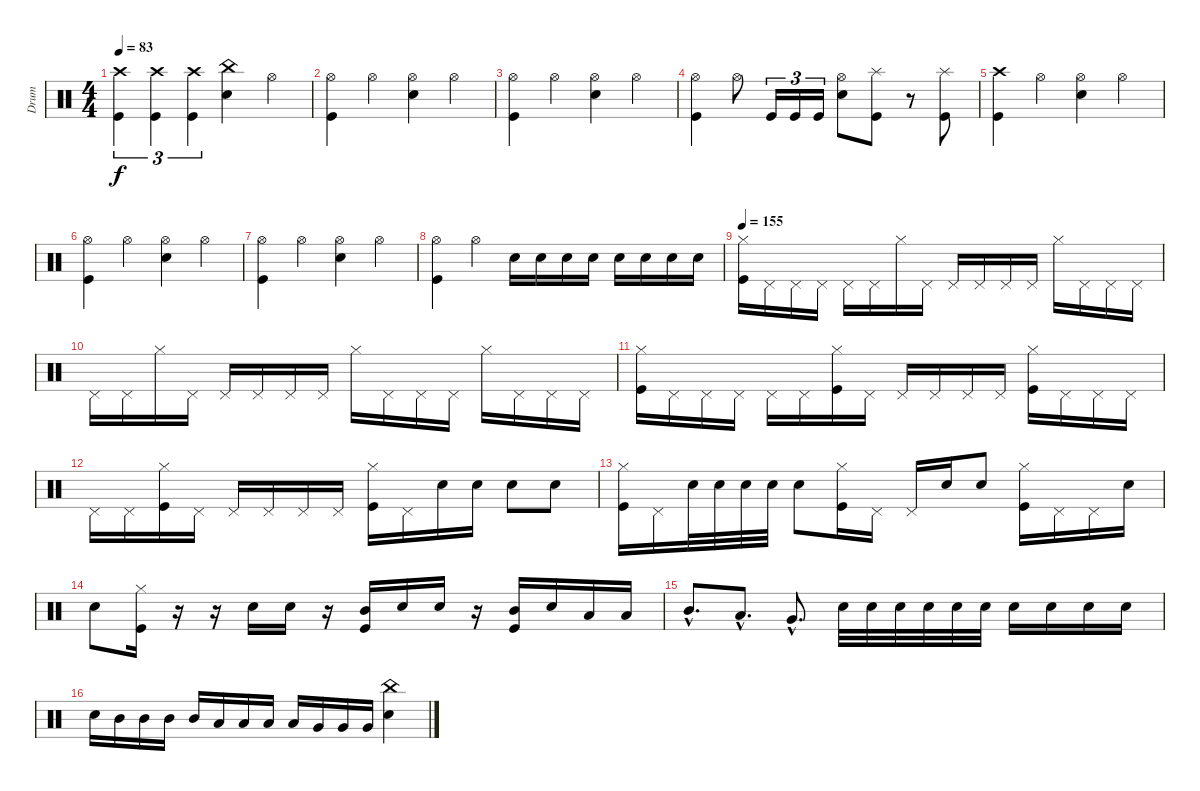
\track ("Drum" "Drum") {instrument percussion}
\staff {score}
\articulation defaults
\ts (4 4)
\tempo 83
\clef neutral
\ks c
("Kick (hit)" "Crash high (hit)").4{tu (3 2) dy f} ("Kick (hit)" "Crash high (hit)").4{tu (3 2)} ("Kick (hit)" "Crash high (hit)").4{tu (3 2)} ("Electric Snare (hit)" "China (hit)").4 "Hi-Hat (open)".4 |
("Kick (hit)" "Hi-Hat (open)").4 "Hi-Hat (open)".4 ("Electric Snare (hit)" "Hi-Hat (open)").4 "Hi-Hat (open)".4 |
("Kick (hit)" "Hi-Hat (open)").4 "Hi-Hat (open)".4 ("Electric Snare (hit)" "Hi-Hat (open)").4 "Hi-Hat (open)".4 |
("Kick (hit)" "Hi-Hat (open)").4 "Hi-Hat (open)".8 "Kick (hit)".16{tu (3 2)} "Kick (hit)".16{tu (3 2)} "Kick (hit)".16{tu (3 2)} ("Electric Snare (hit)" "Hi-Hat (open)").8 ("Kick (hit)" "Splash (hit)").8 r.8 ("Kick (hit)" "Splash (hit)").8 |
("Kick (hit)" "Crash high (hit)").4 "Hi-Hat (open)".4 ("Electric Snare (hit)" "Hi-Hat (open)").4 "Hi-Hat (open)".4 |
("Kick (hit)" "Hi-Hat (open)").4 "Hi-Hat (open)".4 ("Electric Snare (hit)" "Hi-Hat (open)").4 "Hi-Hat (open)".4 |
("Kick (hit)" "Hi-Hat (open)").4 "Hi-Hat (open)".4 ("Electric Snare (hit)" "Hi-Hat (open)").4 "Hi-Hat (open)".4 |
("Kick (hit)" "Hi-Hat (open)").4 "Hi-Hat (open)".4 "Electric Snare (hit)".16 "Electric Snare (hit)".16 "Electric Snare (hit)".16 "Electric Snare (hit)".16 "Electric Snare (hit)".16 "Electric Snare (hit)".16 "Electric Snare (hit)".16 "Electric Snare (hit)".16 |
\tempo 155
("Kick (hit)" "Hi-Hat (closed)").16 "Pedal Hi-Hat (hit)".16 "Pedal Hi-Hat (hit)".16 "Pedal Hi-Hat (hit)".16 "Pedal Hi-Hat (hit)".16 "Pedal Hi-Hat (hit)".16 "Hi-Hat (closed)".16 "Pedal Hi-Hat (hit)".16 "Pedal Hi-Hat (hit)".16 "Pedal Hi-Hat (hit)".16 "Pedal Hi-Hat (hit)".16 "Pedal Hi-Hat (hit)".16 "Hi-Hat (closed)".16 "Pedal Hi-Hat (hit)".16 "Pedal Hi-Hat (hit)".16 "Pedal Hi-Hat (hit)".16 |
"Pedal Hi-Hat (hit)".16 "Pedal Hi-Hat (hit)".16 "Hi-Hat (closed)".16 "Pedal Hi-Hat (hit)".16 "Pedal Hi-Hat (hit)".16 "Pedal Hi-Hat (hit)".16 "Pedal Hi-Hat (hit)".16 "Pedal Hi-Hat (hit)".16 "Hi-Hat (closed)".16 "Pedal Hi-Hat (hit)".16 "Pedal Hi-Hat (hit)".16 "Pedal Hi-Hat (hit)".16 "Hi-Hat (closed)".16 "Pedal Hi-Hat (hit)".16 "Pedal Hi-Hat (hit)".16 "Pedal Hi-Hat (hit)".16 |
("Kick (hit)" "Hi-Hat (closed)").16 "Pedal Hi-Hat (hit)".16 "Pedal Hi-Hat (hit)".16 "Pedal Hi-Hat (hit)".16 "Pedal Hi-Hat (hit)".16 "Pedal Hi-Hat (hit)".16 ("Kick (hit)" "Hi-Hat (closed)").16 "Pedal Hi-Hat (hit)".16 "Pedal Hi-Hat (hit)".16 "Pedal Hi-Hat (hit)".16 "Pedal Hi-Hat (hit)".16 "Pedal Hi-Hat (hit)".16 ("Kick (hit)" "Hi-Hat (closed)").16 "Pedal Hi-Hat (hit)".16 "Pedal Hi-Hat (hit)".16 "Pedal Hi-Hat (hit)".16 |
"Pedal Hi-Hat (hit)".16 "Pedal Hi-Hat (hit)".16 ("Kick (hit)" "Hi-Hat (closed)").16 "Pedal Hi-Hat (hit)".16 "Pedal Hi-Hat (hit)".16 "Pedal Hi-Hat (hit)".16 "Pedal Hi-Hat (hit)".16 "Pedal Hi-Hat (hit)".16 ("Kick (hit)" "Hi-Hat (closed)").16 "Pedal Hi-Hat (hit)".16 "Electric Snare (hit)".16 "Electric Snare (hit)".16 "Electric Snare (hit)".8 "Electric Snare (hit)".8 |
("Kick (hit)" "Hi-Hat (closed)").16 "Pedal Hi-Hat (hit)".16 "Electric Snare (hit)".32 "Electric Snare (hit)".32 "Electric Snare (hit)".32 "Electric Snare (hit)".32 "Electric Snare (hit)".8 ("Kick (hit)" "Hi-Hat (closed)").16 "Pedal Hi-Hat (hit)".16 "Pedal Hi-Hat (hit)".16 "Electric Snare (hit)".16 "Electric Snare (hit)".8 ("Kick (hit)" "Hi-Hat (closed)").16 "Pedal Hi-Hat (hit)".16 "Pedal Hi-Hat (hit)".16 "Electric Snare (hit)".16 |
"Electric Snare (hit)".8 ("Kick (hit)" "Hi-Hat (closed)").16 r.16 r.16 "Electric Snare (hit)".16 "Electric Snare (hit)".16 r.16 ("Kick (hit)" "Mid Tom (hit)").16 "Electric Snare (hit)".16 "Electric Snare (hit)".16 r.16 ("Kick (hit)" "Mid Tom (hit)").16 "Electric Snare (hit)".16 "Low Tom (hit)".16 "Low Tom (hit)".16 |
"Mid Tom (hit)"{hac}.8{d} "Low Tom (hit)"{hac}.8{d} "Very Low Tom (hit)"{hac}.8{d} "Electric Snare (hit)".32 "Electric Snare (hit)".32 "Electric Snare (hit)".32 "Electric Snare (hit)".32 "Electric Snare (hit)".32 "Electric Snare (hit)".32 "Electric Snare (hit)".16 "Electric Snare (hit)".16 "Electric Snare (hit)".16 "Electric Snare (hit)".16 |
"Electric Snare (hit)".16 "Mid Tom (hit)".16 "Mid Tom (hit)".16 "Mid Tom (hit)".16 "Mid Tom (hit)".16 "Low Tom (hit)".16 "Low Tom (hit)".16 "Low Tom (hit)".16 "Low Tom (hit)".16 "Very Low Tom (hit)".16 "Very Low Tom (hit)".16 "Very Low Tom (hit)".16 ("Electric Snare (hit)" "China (hit)").4
